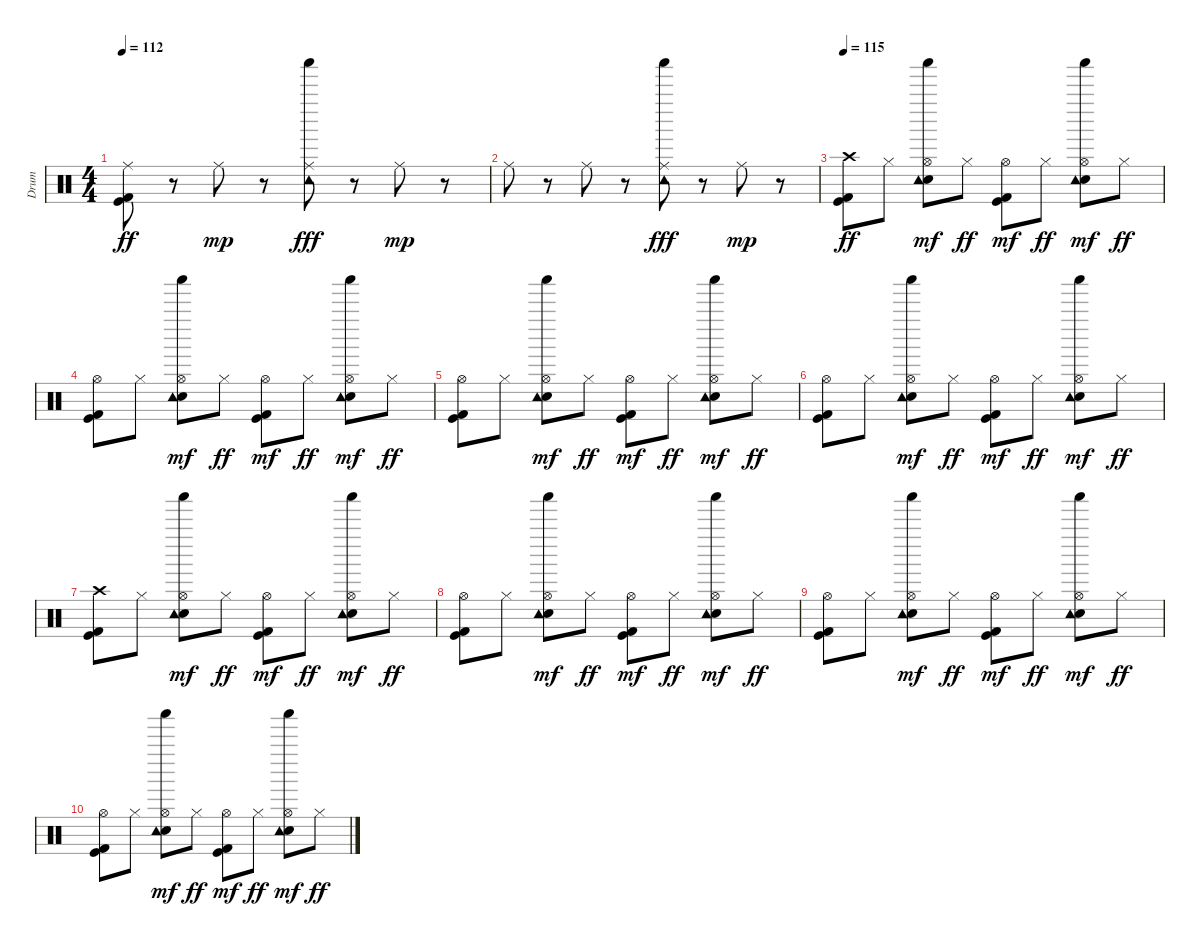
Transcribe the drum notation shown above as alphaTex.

\track ("Drum" "Drum") {instrument percussion}
\staff {score}
\articulation defaults
\ts (4 4)
\tempo 112
\clef neutral
\ks c
("Ride (middle)" "Kick (hit)" "Kick (hit) 2").8{dy ff} r.8 "Ride (middle)".8{dy mp} r.8 ("Ride (middle)" "Shaker (hit)" "Tambourine (hit)").8{dy fff} r.8 "Ride (middle)".8{dy mp} r.8 |
"Ride (middle)".8 r.8 "Ride (middle)".8 r.8 ("Ride (middle)" "Shaker (hit)" "Tambourine (hit)").8{dy fff} r.8 "Ride (middle)".8{dy mp} r.8 |
\tempo 115
("Crash high (hit)" "Kick (hit)" "Kick (hit) 2").8{dy ff} "Hi-Hat (closed)".8 ("Hi-Hat (open)" "Shaker (hit)" "Snare (hit) 2" "Tambourine (hit)").8{dy mf} "Hi-Hat (closed)".8{dy ff} ("Hi-Hat (open)" "Kick (hit)" "Kick (hit) 2").8{dy mf} "Hi-Hat (closed)".8{dy ff} ("Hi-Hat (open)" "Shaker (hit)" "Snare (hit) 2" "Tambourine (hit)").8{dy mf} "Hi-Hat (closed)".8{dy ff} |
("Hi-Hat (open)" "Kick (hit)" "Kick (hit) 2").8 "Hi-Hat (closed)".8 ("Hi-Hat (open)" "Shaker (hit)" "Snare (hit) 2" "Tambourine (hit)").8{dy mf} "Hi-Hat (closed)".8{dy ff} ("Hi-Hat (open)" "Kick (hit)" "Kick (hit) 2").8{dy mf} "Hi-Hat (closed)".8{dy ff} ("Hi-Hat (open)" "Shaker (hit)" "Snare (hit) 2" "Tambourine (hit)").8{dy mf} "Hi-Hat (closed)".8{dy ff} |
("Hi-Hat (open)" "Kick (hit)" "Kick (hit) 2").8 "Hi-Hat (closed)".8 ("Hi-Hat (open)" "Shaker (hit)" "Snare (hit) 2" "Tambourine (hit)").8{dy mf} "Hi-Hat (closed)".8{dy ff} ("Hi-Hat (open)" "Kick (hit)" "Kick (hit) 2").8{dy mf} "Hi-Hat (closed)".8{dy ff} ("Hi-Hat (open)" "Shaker (hit)" "Snare (hit) 2" "Tambourine (hit)").8{dy mf} "Hi-Hat (closed)".8{dy ff} |
("Hi-Hat (open)" "Kick (hit)" "Kick (hit) 2").8 "Hi-Hat (closed)".8 ("Hi-Hat (open)" "Shaker (hit)" "Snare (hit) 2" "Tambourine (hit)").8{dy mf} "Hi-Hat (closed)".8{dy ff} ("Hi-Hat (open)" "Kick (hit)" "Kick (hit) 2").8{dy mf} "Hi-Hat (closed)".8{dy ff} ("Hi-Hat (open)" "Shaker (hit)" "Snare (hit) 2" "Tambourine (hit)").8{dy mf} "Hi-Hat (closed)".8{dy ff} |
("Crash high (hit)" "Kick (hit)" "Kick (hit) 2").8 "Hi-Hat (closed)".8 ("Hi-Hat (open)" "Shaker (hit)" "Snare (hit) 2" "Tambourine (hit)").8{dy mf} "Hi-Hat (closed)".8{dy ff} ("Hi-Hat (open)" "Kick (hit)" "Kick (hit) 2").8{dy mf} "Hi-Hat (closed)".8{dy ff} ("Hi-Hat (open)" "Shaker (hit)" "Snare (hit) 2" "Tambourine (hit)").8{dy mf} "Hi-Hat (closed)".8{dy ff} |
("Hi-Hat (open)" "Kick (hit)" "Kick (hit) 2").8 "Hi-Hat (closed)".8 ("Hi-Hat (open)" "Shaker (hit)" "Snare (hit) 2" "Tambourine (hit)").8{dy mf} "Hi-Hat (closed)".8{dy ff} ("Hi-Hat (open)" "Kick (hit)" "Kick (hit) 2").8{dy mf} "Hi-Hat (closed)".8{dy ff} ("Hi-Hat (open)" "Shaker (hit)" "Snare (hit) 2" "Tambourine (hit)").8{dy mf} "Hi-Hat (closed)".8{dy ff} |
("Hi-Hat (open)" "Kick (hit)" "Kick (hit) 2").8 "Hi-Hat (closed)".8 ("Hi-Hat (open)" "Shaker (hit)" "Snare (hit) 2" "Tambourine (hit)").8{dy mf} "Hi-Hat (closed)".8{dy ff} ("Hi-Hat (open)" "Kick (hit)" "Kick (hit) 2").8{dy mf} "Hi-Hat (closed)".8{dy ff} ("Hi-Hat (open)" "Shaker (hit)" "Snare (hit) 2" "Tambourine (hit)").8{dy mf} "Hi-Hat (closed)".8{dy ff} |
("Hi-Hat (open)" "Kick (hit)" "Kick (hit) 2").8 "Hi-Hat (closed)".8 ("Hi-Hat (open)" "Shaker (hit)" "Snare (hit) 2" "Tambourine (hit)").8{dy mf} "Hi-Hat (closed)".8{dy ff} ("Hi-Hat (open)" "Kick (hit)" "Kick (hit) 2").8{dy mf} "Hi-Hat (closed)".8{dy ff} ("Hi-Hat (open)" "Shaker (hit)" "Snare (hit) 2" "Tambourine (hit)").8{dy mf} "Hi-Hat (closed)".8{dy ff}
